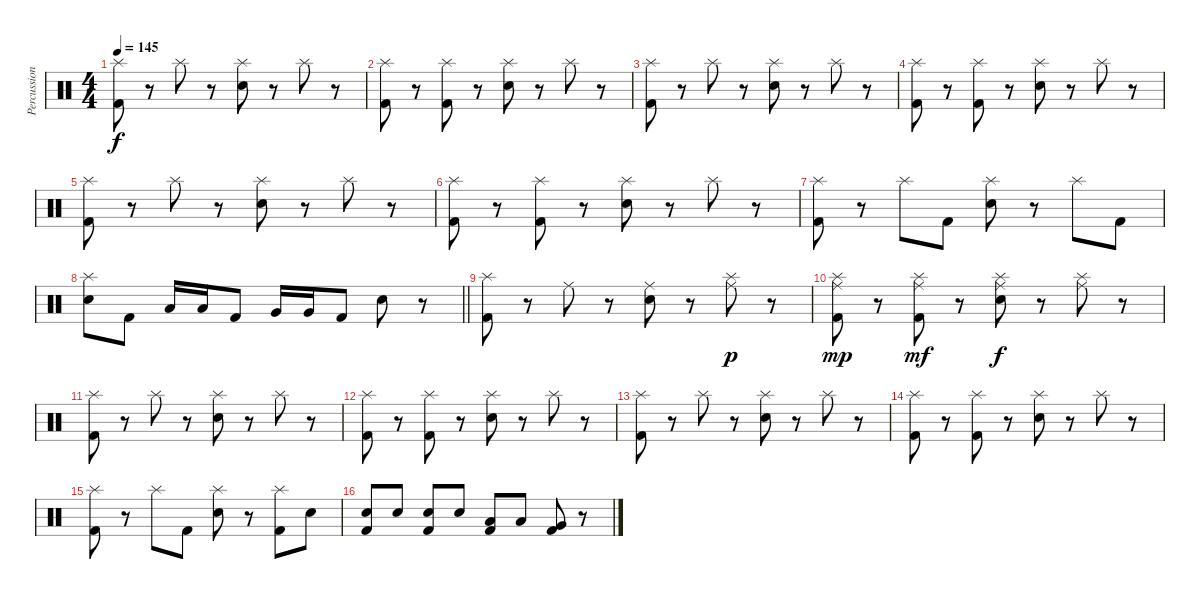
\track ("Percussion" "Percussion") {instrument percussion}
\staff {score}
\articulation defaults
\ts (4 4)
\tempo 145
\clef neutral
\ks c
("Splash (hit)" "Kick (hit) 2").8{dy f} r.8 "Splash (hit)".8 r.8 ("Splash (hit)" "Electric Snare (hit)").8 r.8 "Splash (hit)".8 r.8 |
("Splash (hit)" "Kick (hit) 2").8 r.8 ("Splash (hit)" "Kick (hit) 2").8 r.8 ("Splash (hit)" "Electric Snare (hit)").8 r.8 "Splash (hit)".8 r.8 |
("Splash (hit)" "Kick (hit) 2").8 r.8 "Splash (hit)".8 r.8 ("Splash (hit)" "Electric Snare (hit)").8 r.8 "Splash (hit)".8 r.8 |
("Splash (hit)" "Kick (hit) 2").8 r.8 ("Splash (hit)" "Kick (hit) 2").8 r.8 ("Splash (hit)" "Electric Snare (hit)").8 r.8 "Splash (hit)".8 r.8 |
("Splash (hit)" "Kick (hit) 2").8 r.8 "Splash (hit)".8 r.8 ("Splash (hit)" "Electric Snare (hit)").8 r.8 "Splash (hit)".8 r.8 |
("Splash (hit)" "Kick (hit) 2").8 r.8 ("Splash (hit)" "Kick (hit) 2").8 r.8 ("Splash (hit)" "Electric Snare (hit)").8 r.8 "Splash (hit)".8 r.8 |
("Splash (hit)" "Kick (hit) 2").8 r.8 "Splash (hit)".8 "Kick (hit) 2".8 ("Splash (hit)" "Electric Snare (hit)").8 r.8 "Splash (hit)".8 "Kick (hit) 2".8 |
\barLineRight lightlight
("Splash (hit)" "Electric Snare (hit)").8 "Kick (hit) 2".8 "Low Tom (hit)".16 "Low Tom (hit)".16 "Kick (hit) 2".8 "Very Low Tom (hit)".16 "Very Low Tom (hit)".16 "Kick (hit) 2".8 "Electric Snare (hit)".8 r.8 |
\section ("" "")
("Splash (hit)" "Kick (hit) 2").8 r.8 "Ride (middle)".8 r.8 ("Ride (middle)" "Electric Snare (hit)").8 r.8 ("Ride (middle)" "Splash (hit)").8{dy p} r.8 |
("Ride (middle)" "Splash (hit)" "Kick (hit) 2").8{dy mp} r.8 ("Ride (middle)" "Splash (hit)" "Kick (hit) 2").8{dy mf} r.8 ("Ride (middle)" "Splash (hit)" "Electric Snare (hit)").8{dy f} r.8 ("Ride (middle)" "Splash (hit)").8 r.8 |
("Splash (hit)" "Kick (hit) 2").8 r.8 "Splash (hit)".8 r.8 ("Splash (hit)" "Electric Snare (hit)").8 r.8 "Splash (hit)".8 r.8 |
("Splash (hit)" "Kick (hit) 2").8 r.8 ("Splash (hit)" "Kick (hit) 2").8 r.8 ("Splash (hit)" "Electric Snare (hit)").8 r.8 "Splash (hit)".8 r.8 |
("Splash (hit)" "Kick (hit) 2").8 r.8 "Splash (hit)".8 r.8 ("Splash (hit)" "Electric Snare (hit)").8 r.8 "Splash (hit)".8 r.8 |
("Splash (hit)" "Kick (hit) 2").8 r.8 ("Splash (hit)" "Kick (hit) 2").8 r.8 ("Splash (hit)" "Electric Snare (hit)").8 r.8 "Splash (hit)".8 r.8 |
("Splash (hit)" "Kick (hit) 2").8 r.8 "Splash (hit)".8 "Kick (hit) 2".8 ("Splash (hit)" "Electric Snare (hit)").8 r.8 ("Splash (hit)" "Kick (hit) 2").8 "Electric Snare (hit)".8 |
("Electric Snare (hit)" "Kick (hit) 2").8 "Electric Snare (hit)".8 ("Electric Snare (hit)" "Kick (hit) 2").8 "Electric Snare (hit)".8 ("Low Tom (hit)" "Kick (hit) 2").8 "Low Tom (hit)".8 ("Very Low Tom (hit)" "Kick (hit) 2").8 r.8
